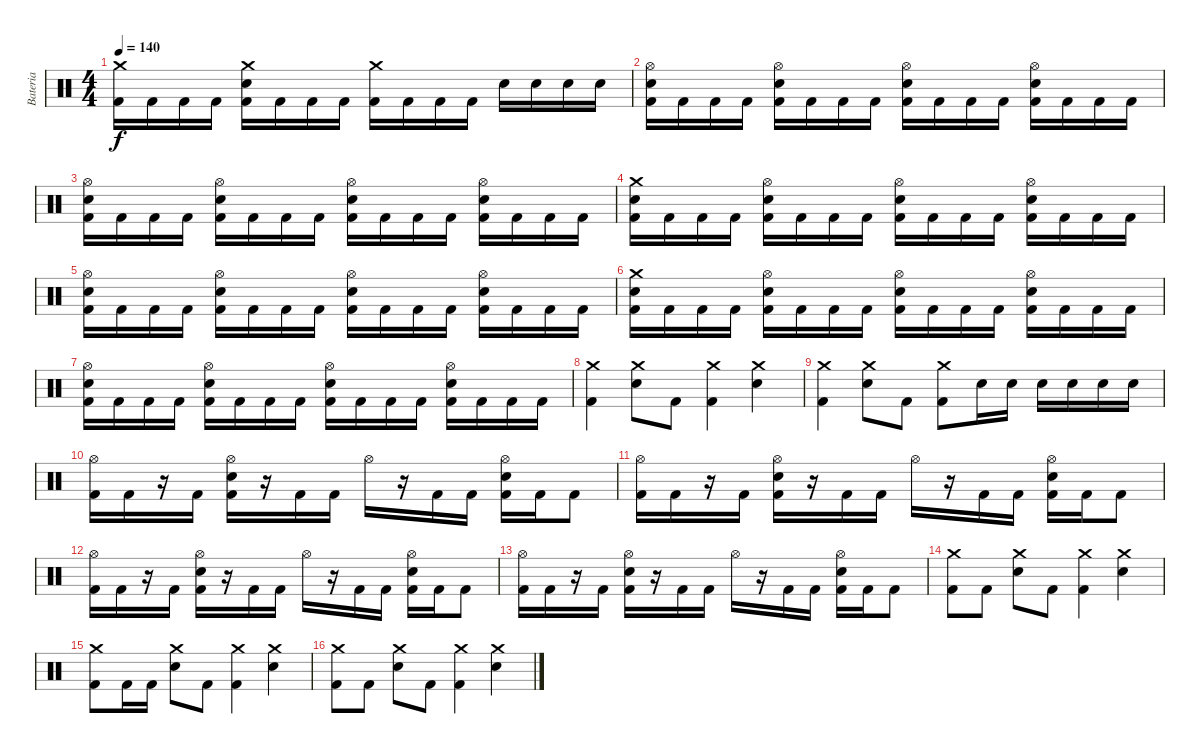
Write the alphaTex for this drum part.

\track ("Bateria" "Bateria") {instrument percussion}
\staff {score}
\articulation defaults
\ts (4 4)
\tempo 140
\clef neutral
\ks c
("Crash medium (hit)" "Kick (hit) 2").16{dy f} "Kick (hit) 2".16 "Kick (hit) 2".16 "Kick (hit) 2".16 ("Crash medium (hit)" "Electric Snare (hit)" "Kick (hit) 2").16 "Kick (hit) 2".16 "Kick (hit) 2".16 "Kick (hit) 2".16 ("Crash medium (hit)" "Kick (hit) 2").16 "Kick (hit) 2".16 "Kick (hit) 2".16 "Kick (hit) 2".16 "Electric Snare (hit)".16 "Electric Snare (hit)".16 "Electric Snare (hit)".16 "Electric Snare (hit)".16 |
("Hi-Hat (open)" "Electric Snare (hit)" "Kick (hit) 2").16 "Kick (hit) 2".16 "Kick (hit) 2".16 "Kick (hit) 2".16 ("Hi-Hat (open)" "Electric Snare (hit)" "Kick (hit) 2").16 "Kick (hit) 2".16 "Kick (hit) 2".16 "Kick (hit) 2".16 ("Hi-Hat (open)" "Electric Snare (hit)" "Kick (hit) 2").16 "Kick (hit) 2".16 "Kick (hit) 2".16 "Kick (hit) 2".16 ("Hi-Hat (open)" "Electric Snare (hit)" "Kick (hit) 2").16 "Kick (hit) 2".16 "Kick (hit) 2".16 "Kick (hit) 2".16 |
("Hi-Hat (open)" "Electric Snare (hit)" "Kick (hit) 2").16 "Kick (hit) 2".16 "Kick (hit) 2".16 "Kick (hit) 2".16 ("Hi-Hat (open)" "Electric Snare (hit)" "Kick (hit) 2").16 "Kick (hit) 2".16 "Kick (hit) 2".16 "Kick (hit) 2".16 ("Hi-Hat (open)" "Electric Snare (hit)" "Kick (hit) 2").16 "Kick (hit) 2".16 "Kick (hit) 2".16 "Kick (hit) 2".16 ("Hi-Hat (open)" "Electric Snare (hit)" "Kick (hit) 2").16 "Kick (hit) 2".16 "Kick (hit) 2".16 "Kick (hit) 2".16 |
("Crash medium (hit)" "Electric Snare (hit)" "Kick (hit) 2").16 "Kick (hit) 2".16 "Kick (hit) 2".16 "Kick (hit) 2".16 ("Hi-Hat (open)" "Electric Snare (hit)" "Kick (hit) 2").16 "Kick (hit) 2".16 "Kick (hit) 2".16 "Kick (hit) 2".16 ("Hi-Hat (open)" "Electric Snare (hit)" "Kick (hit) 2").16 "Kick (hit) 2".16 "Kick (hit) 2".16 "Kick (hit) 2".16 ("Hi-Hat (open)" "Electric Snare (hit)" "Kick (hit) 2").16 "Kick (hit) 2".16 "Kick (hit) 2".16 "Kick (hit) 2".16 |
("Hi-Hat (open)" "Electric Snare (hit)" "Kick (hit) 2").16 "Kick (hit) 2".16 "Kick (hit) 2".16 "Kick (hit) 2".16 ("Hi-Hat (open)" "Electric Snare (hit)" "Kick (hit) 2").16 "Kick (hit) 2".16 "Kick (hit) 2".16 "Kick (hit) 2".16 ("Hi-Hat (open)" "Electric Snare (hit)" "Kick (hit) 2").16 "Kick (hit) 2".16 "Kick (hit) 2".16 "Kick (hit) 2".16 ("Hi-Hat (open)" "Electric Snare (hit)" "Kick (hit) 2").16 "Kick (hit) 2".16 "Kick (hit) 2".16 "Kick (hit) 2".16 |
("Crash medium (hit)" "Electric Snare (hit)" "Kick (hit) 2").16 "Kick (hit) 2".16 "Kick (hit) 2".16 "Kick (hit) 2".16 ("Hi-Hat (open)" "Electric Snare (hit)" "Kick (hit) 2").16 "Kick (hit) 2".16 "Kick (hit) 2".16 "Kick (hit) 2".16 ("Hi-Hat (open)" "Electric Snare (hit)" "Kick (hit) 2").16 "Kick (hit) 2".16 "Kick (hit) 2".16 "Kick (hit) 2".16 ("Hi-Hat (open)" "Electric Snare (hit)" "Kick (hit) 2").16 "Kick (hit) 2".16 "Kick (hit) 2".16 "Kick (hit) 2".16 |
("Hi-Hat (open)" "Electric Snare (hit)" "Kick (hit) 2").16 "Kick (hit) 2".16 "Kick (hit) 2".16 "Kick (hit) 2".16 ("Hi-Hat (open)" "Electric Snare (hit)" "Kick (hit) 2").16 "Kick (hit) 2".16 "Kick (hit) 2".16 "Kick (hit) 2".16 ("Hi-Hat (open)" "Electric Snare (hit)" "Kick (hit) 2").16 "Kick (hit) 2".16 "Kick (hit) 2".16 "Kick (hit) 2".16 ("Hi-Hat (open)" "Electric Snare (hit)" "Kick (hit) 2").16 "Kick (hit) 2".16 "Kick (hit) 2".16 "Kick (hit) 2".16 |
("Crash medium (hit)" "Kick (hit) 2").4 ("Crash medium (hit)" "Electric Snare (hit)").8 "Kick (hit) 2".8 ("Crash medium (hit)" "Kick (hit) 2").4 ("Crash medium (hit)" "Electric Snare (hit)").4 |
("Crash medium (hit)" "Kick (hit) 2").4 ("Crash medium (hit)" "Electric Snare (hit)").8 "Kick (hit) 2".8 ("Crash medium (hit)" "Kick (hit) 2").8 "Electric Snare (hit)".16 "Electric Snare (hit)".16 "Electric Snare (hit)".16 "Electric Snare (hit)".16 "Electric Snare (hit)".16 "Electric Snare (hit)".16 |
("Hi-Hat (open)" "Kick (hit) 2").16 "Kick (hit) 2".16 r.16 "Kick (hit) 2".16 ("Hi-Hat (open)" "Electric Snare (hit)" "Kick (hit) 2").16 r.16 "Kick (hit) 2".16 "Kick (hit) 2".16 "Hi-Hat (open)".16 r.16 "Kick (hit) 2".16 "Kick (hit) 2".16 ("Hi-Hat (open)" "Electric Snare (hit)" "Kick (hit) 2").16 "Kick (hit) 2".16 "Kick (hit) 2".8 |
("Hi-Hat (open)" "Kick (hit) 2").16 "Kick (hit) 2".16 r.16 "Kick (hit) 2".16 ("Hi-Hat (open)" "Electric Snare (hit)" "Kick (hit) 2").16 r.16 "Kick (hit) 2".16 "Kick (hit) 2".16 "Hi-Hat (open)".16 r.16 "Kick (hit) 2".16 "Kick (hit) 2".16 ("Hi-Hat (open)" "Electric Snare (hit)" "Kick (hit) 2").16 "Kick (hit) 2".16 "Kick (hit) 2".8 |
("Hi-Hat (open)" "Kick (hit) 2").16 "Kick (hit) 2".16 r.16 "Kick (hit) 2".16 ("Hi-Hat (open)" "Electric Snare (hit)" "Kick (hit) 2").16 r.16 "Kick (hit) 2".16 "Kick (hit) 2".16 "Hi-Hat (open)".16 r.16 "Kick (hit) 2".16 "Kick (hit) 2".16 ("Hi-Hat (open)" "Electric Snare (hit)" "Kick (hit) 2").16 "Kick (hit) 2".16 "Kick (hit) 2".8 |
("Hi-Hat (open)" "Kick (hit) 2").16 "Kick (hit) 2".16 r.16 "Kick (hit) 2".16 ("Hi-Hat (open)" "Electric Snare (hit)" "Kick (hit) 2").16 r.16 "Kick (hit) 2".16 "Kick (hit) 2".16 "Hi-Hat (open)".16 r.16 "Kick (hit) 2".16 "Kick (hit) 2".16 ("Hi-Hat (open)" "Electric Snare (hit)" "Kick (hit) 2").16 "Kick (hit) 2".16 "Kick (hit) 2".8 |
("Crash medium (hit)" "Kick (hit) 2").8 "Kick (hit) 2".8 ("Crash medium (hit)" "Electric Snare (hit)").8 "Kick (hit) 2".8 ("Crash medium (hit)" "Kick (hit) 2").4 ("Crash medium (hit)" "Electric Snare (hit)").4 |
("Crash medium (hit)" "Kick (hit) 2").8 "Kick (hit) 2".16 "Kick (hit) 2".16 ("Crash medium (hit)" "Electric Snare (hit)").8 "Kick (hit) 2".8 ("Crash medium (hit)" "Kick (hit) 2").4 ("Crash medium (hit)" "Electric Snare (hit)").4 |
("Crash medium (hit)" "Kick (hit) 2").8 "Kick (hit) 2".8 ("Crash medium (hit)" "Electric Snare (hit)").8 "Kick (hit) 2".8 ("Crash medium (hit)" "Kick (hit) 2").4 ("Crash medium (hit)" "Electric Snare (hit)").4
